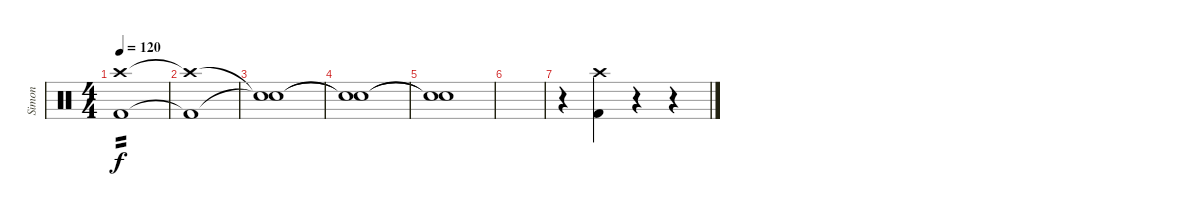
\track ("Simon" "Simon") {instrument percussion}
\staff {score}
\articulation defaults
\ts (4 4)
\tempo 120
\clef neutral
\ks c
("Kick (hit) 2" "Crash high (hit)").1{tp 2 dy f} |
("Kick (hit) 2"{t} "Crash high (hit)"{t}).1 |
("Snare (hit)"{t} "Snare (hit)"{t}).1 |
("Snare (hit)"{t} "Snare (hit)"{t}).1 |
("Snare (hit)"{t} "Snare (hit)"{t}).1 |
|
r.4 ("Kick (hit) 2" "Crash high (hit)").4 r.4 r.4
